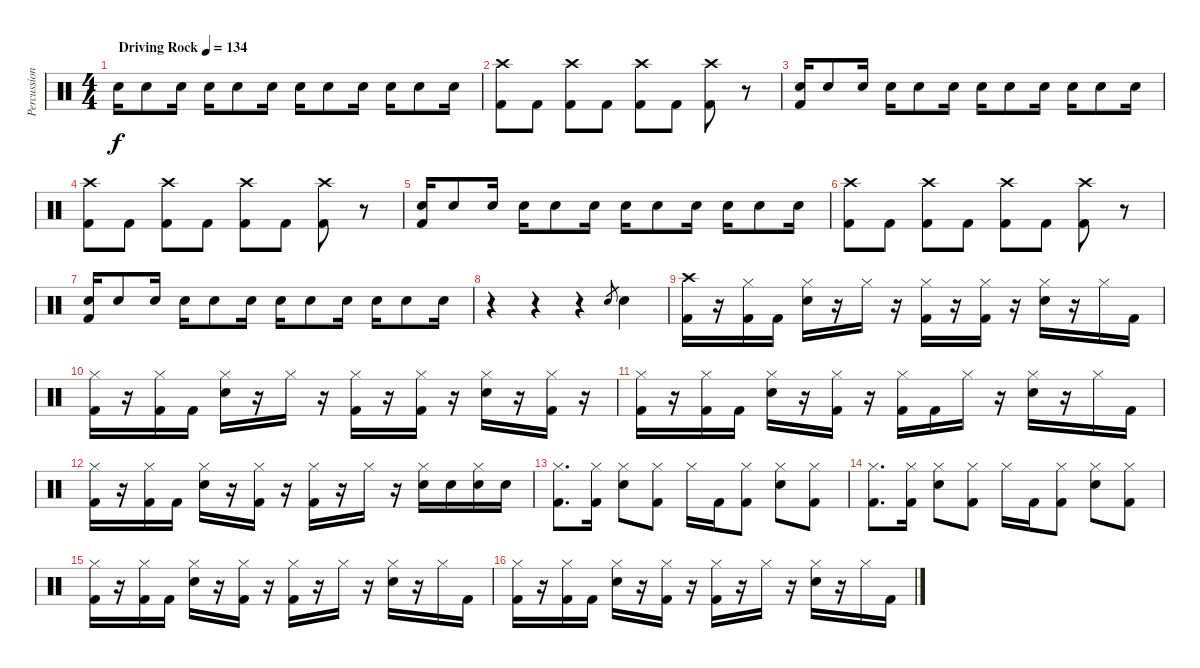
\track ("Percussion" "Percussion") {instrument percussion}
\staff {score}
\articulation defaults
\ts (4 4)
\tempo (134 "Driving Rock")
\clef neutral
\ks c "Snare (hit) 2".16{dy f} "Snare (hit) 2".8 "Snare (hit) 2".16 "Snare (hit) 2".16 "Snare (hit) 2".8 "Snare (hit) 2".16 "Snare (hit) 2".16 "Snare (hit) 2".8 "Snare (hit) 2".16 "Snare (hit) 2".16 "Snare (hit) 2".8 "Snare (hit) 2".16
|
("Crash high (hit)" "Kick (hit) 2").8 "Kick (hit) 2".8 ("Crash high (hit)" "Kick (hit) 2").8 "Kick (hit) 2".8 ("Crash high (hit)" "Kick (hit) 2").8 "Kick (hit) 2".8 ("Crash high (hit)" "Kick (hit) 2").8 r.8 |
("Snare (hit) 2" "Kick (hit) 2").16 "Snare (hit) 2".8 "Snare (hit) 2".16 "Snare (hit) 2".16 "Snare (hit) 2".8 "Snare (hit) 2".16 "Snare (hit) 2".16 "Snare (hit) 2".8 "Snare (hit) 2".16 "Snare (hit) 2".16 "Snare (hit) 2".8 "Snare (hit) 2".16 |
("Crash high (hit)" "Kick (hit) 2").8 "Kick (hit) 2".8 ("Crash high (hit)" "Kick (hit) 2").8 "Kick (hit) 2".8 ("Crash high (hit)" "Kick (hit) 2").8 "Kick (hit) 2".8 ("Crash high (hit)" "Kick (hit) 2").8 r.8 |
("Snare (hit) 2" "Kick (hit) 2").16 "Snare (hit) 2".8 "Snare (hit) 2".16 "Snare (hit) 2".16 "Snare (hit) 2".8 "Snare (hit) 2".16 "Snare (hit) 2".16 "Snare (hit) 2".8 "Snare (hit) 2".16 "Snare (hit) 2".16 "Snare (hit) 2".8 "Snare (hit) 2".16 |
("Crash high (hit)" "Kick (hit) 2").8 "Kick (hit) 2".8 ("Crash high (hit)" "Kick (hit) 2").8 "Kick (hit) 2".8 ("Crash high (hit)" "Kick (hit) 2").8 "Kick (hit) 2".8 ("Crash high (hit)" "Kick (hit) 2").8 r.8 |
("Snare (hit) 2" "Kick (hit) 2").16 "Snare (hit) 2".8 "Snare (hit) 2".16 "Snare (hit) 2".16 "Snare (hit) 2".8 "Snare (hit) 2".16 "Snare (hit) 2".16 "Snare (hit) 2".8 "Snare (hit) 2".16 "Snare (hit) 2".16 "Snare (hit) 2".8 "Snare (hit) 2".16 |
r.4 r.4 r.4 "Snare (hit) 2".8{gr} "Snare (hit) 2".4 |
("Crash high (hit)" "Kick (hit) 2").16 r.16 ("Hi-Hat (closed)" "Kick (hit) 2").16 "Kick (hit) 2".16 ("Hi-Hat (closed)" "Snare (hit) 2").16 r.16 "Hi-Hat (closed)".16 r.16 ("Hi-Hat (closed)" "Kick (hit) 2").16 r.16 ("Hi-Hat (closed)" "Kick (hit) 2").16 r.16 ("Hi-Hat (closed)" "Snare (hit) 2").16 r.16 "Hi-Hat (closed)".16 "Kick (hit) 2".16 |
("Hi-Hat (closed)" "Kick (hit) 2").16 r.16 ("Hi-Hat (closed)" "Kick (hit) 2").16 "Kick (hit) 2".16 ("Hi-Hat (closed)" "Snare (hit) 2").16 r.16 "Hi-Hat (closed)".16 r.16 ("Hi-Hat (closed)" "Kick (hit) 2").16 r.16 ("Hi-Hat (closed)" "Kick (hit) 2").16 r.16 ("Hi-Hat (closed)" "Snare (hit) 2").16 r.16 ("Hi-Hat (closed)" "Kick (hit) 2").16 r.16 |
("Hi-Hat (closed)" "Kick (hit) 2").16 r.16 ("Hi-Hat (closed)" "Kick (hit) 2").16 "Kick (hit) 2".16 ("Hi-Hat (closed)" "Snare (hit) 2").16 r.16 ("Hi-Hat (closed)" "Kick (hit) 2").16 r.16 ("Hi-Hat (closed)" "Kick (hit) 2").16 "Kick (hit) 2".16 "Hi-Hat (closed)".16 r.16 ("Hi-Hat (closed)" "Snare (hit) 2").16 r.16 "Hi-Hat (closed)".16 "Kick (hit) 2".16 |
("Hi-Hat (closed)" "Kick (hit) 2").16 r.16 ("Hi-Hat (closed)" "Kick (hit) 2").16 "Kick (hit) 2".16 ("Hi-Hat (closed)" "Snare (hit) 2").16 r.16 ("Hi-Hat (closed)" "Kick (hit) 2").16 r.16 ("Hi-Hat (closed)" "Kick (hit) 2").16 r.16 "Hi-Hat (closed)".16 r.16 ("Hi-Hat (closed)" "Snare (hit) 2").16 "Snare (hit) 2".16 ("Hi-Hat (closed)" "Snare (hit) 2").16 "Snare (hit) 2".16 |
("Hi-Hat (closed)" "Kick (hit) 2").8{d} ("Hi-Hat (closed)" "Kick (hit) 2").16 ("Hi-Hat (closed)" "Snare (hit) 2").8 ("Hi-Hat (closed)" "Kick (hit) 2").8 "Hi-Hat (closed)".16 "Kick (hit) 2".16 ("Hi-Hat (closed)" "Kick (hit) 2").8 ("Hi-Hat (closed)" "Snare (hit) 2").8 ("Hi-Hat (closed)" "Kick (hit) 2").8 |
("Hi-Hat (closed)" "Kick (hit) 2").8{d} ("Hi-Hat (closed)" "Kick (hit) 2").16 ("Hi-Hat (closed)" "Snare (hit) 2").8 ("Hi-Hat (closed)" "Kick (hit) 2").8 "Hi-Hat (closed)".16 "Kick (hit) 2".16 ("Hi-Hat (closed)" "Kick (hit) 2").8 ("Hi-Hat (closed)" "Snare (hit) 2").8 ("Hi-Hat (closed)" "Kick (hit) 2").8 |
("Hi-Hat (closed)" "Kick (hit) 2").16 r.16 ("Hi-Hat (closed)" "Kick (hit) 2").16 "Kick (hit) 2".16 ("Hi-Hat (closed)" "Snare (hit) 2").16 r.16 ("Hi-Hat (closed)" "Kick (hit) 2").16 r.16 ("Hi-Hat (closed)" "Kick (hit) 2").16 r.16 "Hi-Hat (closed)".16 r.16 ("Hi-Hat (closed)" "Snare (hit) 2").16 r.16 "Hi-Hat (closed)".16 "Kick (hit) 2".16 |
("Hi-Hat (closed)" "Kick (hit) 2").16 r.16 ("Hi-Hat (closed)" "Kick (hit) 2").16 "Kick (hit) 2".16 ("Hi-Hat (closed)" "Snare (hit) 2").16 r.16 ("Hi-Hat (closed)" "Kick (hit) 2").16 r.16 ("Hi-Hat (closed)" "Kick (hit) 2").16 r.16 "Hi-Hat (closed)".16 r.16 ("Hi-Hat (closed)" "Snare (hit) 2").16 r.16 "Hi-Hat (closed)".16 "Kick (hit) 2".16
